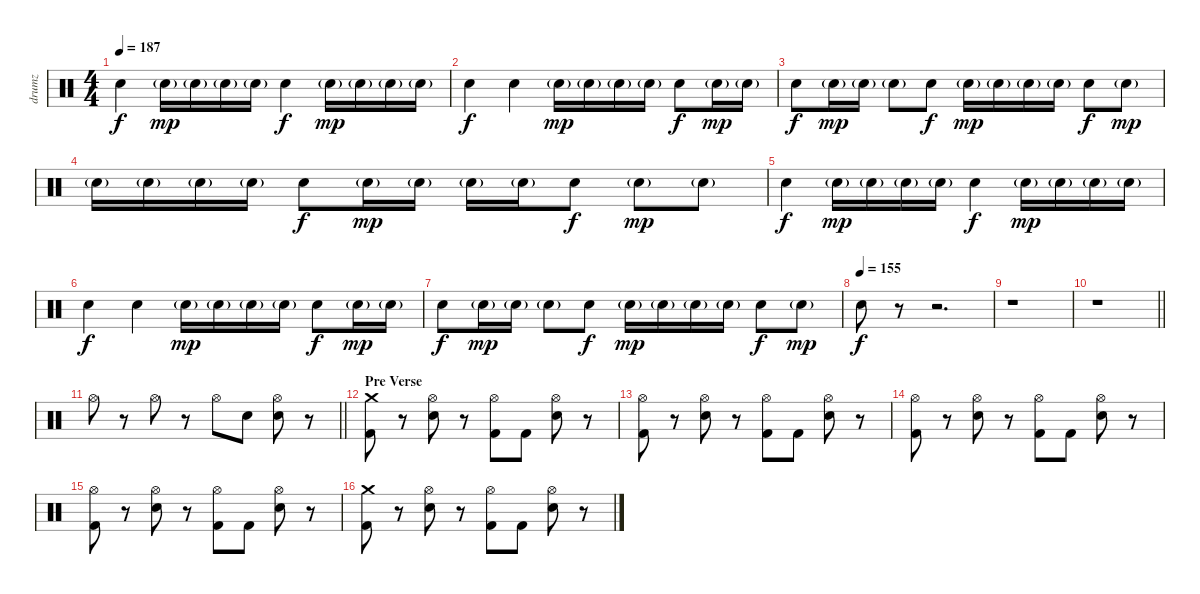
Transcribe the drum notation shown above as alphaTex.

\track ("drumz" "drumz") {instrument percussion}
\staff {score}
\articulation defaults
\ts (4 4)
\tempo 187
\clef neutral
\ks c "Electric Snare (hit)".4{dy f} "Electric Snare (hit)"{g}.16{dy mp} "Electric Snare (hit)"{g}.16 "Electric Snare (hit)"{g}.16 "Electric Snare (hit)"{g}.16 "Electric Snare (hit)".4{dy f} "Electric Snare (hit)"{g}.16{dy mp} "Electric Snare (hit)"{g}.16 "Electric Snare (hit)"{g}.16 "Electric Snare (hit)"{g}.16
|
"Electric Snare (hit)".4{dy f} "Electric Snare (hit)".4 "Electric Snare (hit)"{g}.16{dy mp} "Electric Snare (hit)"{g}.16 "Electric Snare (hit)"{g}.16 "Electric Snare (hit)"{g}.16 "Electric Snare (hit)".8{dy f} "Electric Snare (hit)"{g}.16{dy mp} "Electric Snare (hit)"{g}.16 |
"Electric Snare (hit)".8{dy f} "Electric Snare (hit)"{g}.16{dy mp} "Electric Snare (hit)"{g}.16 "Electric Snare (hit)"{g}.8 "Electric Snare (hit)".8{dy f} "Electric Snare (hit)"{g}.16{dy mp} "Electric Snare (hit)"{g}.16 "Electric Snare (hit)"{g}.16 "Electric Snare (hit)"{g}.16 "Electric Snare (hit)".8{dy f} "Electric Snare (hit)"{g}.8{dy mp} |
"Electric Snare (hit)"{g}.16 "Electric Snare (hit)"{g}.16 "Electric Snare (hit)"{g}.16 "Electric Snare (hit)"{g}.16 "Electric Snare (hit)".8{dy f} "Electric Snare (hit)"{g}.16{dy mp} "Electric Snare (hit)"{g}.16 "Electric Snare (hit)"{g}.16 "Electric Snare (hit)"{g}.16 "Electric Snare (hit)".8{dy f} "Electric Snare (hit)"{g}.8{dy mp} "Electric Snare (hit)"{g}.8 |
"Electric Snare (hit)".4{dy f} "Electric Snare (hit)"{g}.16{dy mp} "Electric Snare (hit)"{g}.16 "Electric Snare (hit)"{g}.16 "Electric Snare (hit)"{g}.16 "Electric Snare (hit)".4{dy f} "Electric Snare (hit)"{g}.16{dy mp} "Electric Snare (hit)"{g}.16 "Electric Snare (hit)"{g}.16 "Electric Snare (hit)"{g}.16 |
"Electric Snare (hit)".4{dy f} "Electric Snare (hit)".4 "Electric Snare (hit)"{g}.16{dy mp} "Electric Snare (hit)"{g}.16 "Electric Snare (hit)"{g}.16 "Electric Snare (hit)"{g}.16 "Electric Snare (hit)".8{dy f} "Electric Snare (hit)"{g}.16{dy mp} "Electric Snare (hit)"{g}.16 |
"Electric Snare (hit)".8{dy f} "Electric Snare (hit)"{g}.16{dy mp} "Electric Snare (hit)"{g}.16 "Electric Snare (hit)"{g}.8 "Electric Snare (hit)".8{dy f} "Electric Snare (hit)"{g}.16{dy mp} "Electric Snare (hit)"{g}.16 "Electric Snare (hit)"{g}.16 "Electric Snare (hit)"{g}.16 "Electric Snare (hit)".8{dy f} "Electric Snare (hit)"{g}.8{dy mp} |
\tempo (155)
"Electric Snare (hit)".8{dy f} r.8 r.2{d} |
r.1 |
\barLineRight lightlight
r.1 |
\barLineRight lightlight "Hi-Hat (open)".8
r.8 "Hi-Hat (open)".8 r.8 "Hi-Hat (open)".8 "Electric Snare (hit)".8 ("Hi-Hat (open)" "Electric Snare (hit)").8 r.8 |
\section ("" "Pre Verse")
("Crash medium (hit)" "Kick (hit) 2").8 r.8 ("Hi-Hat (open)" "Electric Snare (hit)").8 r.8 ("Hi-Hat (open)" "Kick (hit) 2").8 "Kick (hit) 2".8 ("Hi-Hat (open)" "Electric Snare (hit)").8 r.8 |
("Hi-Hat (open)" "Kick (hit) 2").8 r.8 ("Hi-Hat (open)" "Electric Snare (hit)").8 r.8 ("Hi-Hat (open)" "Kick (hit) 2").8 "Kick (hit) 2".8 ("Hi-Hat (open)" "Electric Snare (hit)").8 r.8 |
("Hi-Hat (open)" "Kick (hit) 2").8 r.8 ("Hi-Hat (open)" "Electric Snare (hit)").8 r.8 ("Hi-Hat (open)" "Kick (hit) 2").8 "Kick (hit) 2".8 ("Hi-Hat (open)" "Electric Snare (hit)").8 r.8 |
("Hi-Hat (open)" "Kick (hit) 2").8 r.8 ("Hi-Hat (open)" "Electric Snare (hit)").8 r.8 ("Hi-Hat (open)" "Kick (hit) 2").8 "Kick (hit) 2".8 ("Hi-Hat (open)" "Electric Snare (hit)").8 r.8 |
("Crash medium (hit)" "Kick (hit) 2").8 r.8 ("Hi-Hat (open)" "Electric Snare (hit)").8 r.8 ("Hi-Hat (open)" "Kick (hit) 2").8 "Kick (hit) 2".8 ("Hi-Hat (open)" "Electric Snare (hit)").8 r.8
